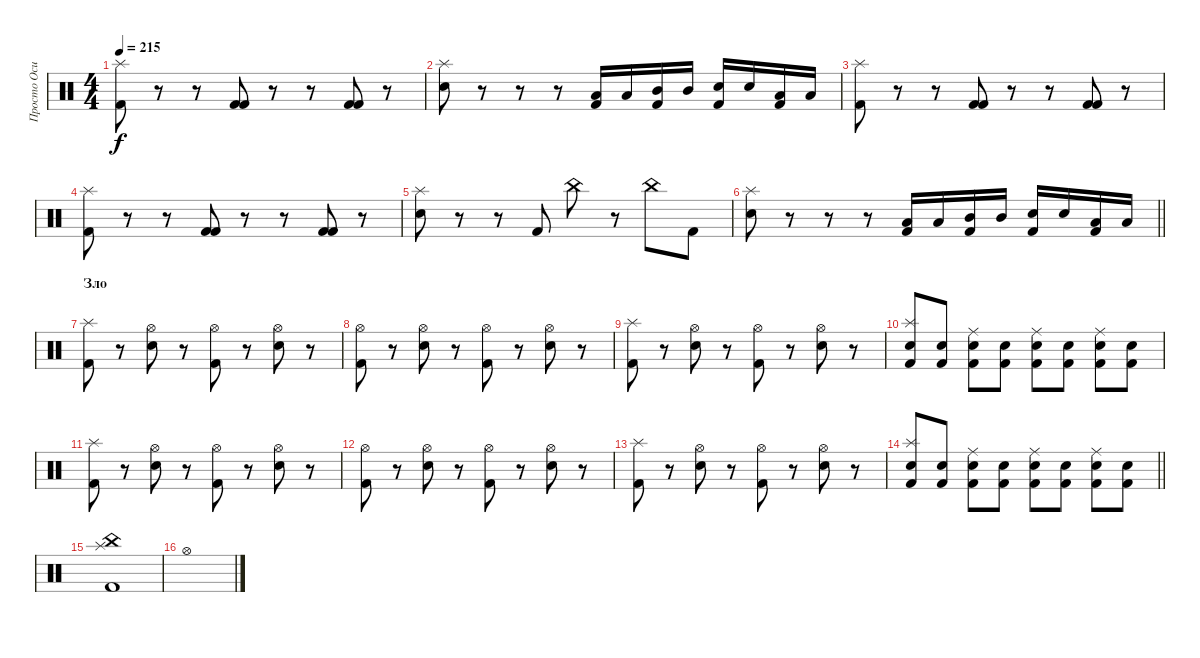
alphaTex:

\track ("Просто Осип" "Просто Оси") {instrument percussion}
\staff {score}
\articulation defaults
\ts (4 4)
\tempo 215
\clef neutral
\ks c
("Kick (hit) 2" "Splash (hit)").8{dy f} r.8 r.8 ("Kick (hit) 2" "Kick (hit) 2").8 r.8 r.8 ("Kick (hit) 2" "Kick (hit) 2").8 r.8 |
("Splash (hit)" "Electric Snare (hit)").8 r.8 r.8 r.8 ("Kick (hit) 2" "Low Tom (hit)").16 "Low Tom (hit)".16 ("Kick (hit) 2" "Mid Tom (hit)").16 "Mid Tom (hit)".16 ("Kick (hit) 2" "Electric Snare (hit)").16 "Electric Snare (hit)".16 ("Kick (hit) 2" "Low Tom (hit)").16 "Low Tom (hit)".16 |
("Kick (hit) 2" "Splash (hit)").8 r.8 r.8 ("Kick (hit) 2" "Kick (hit) 2").8 r.8 r.8 ("Kick (hit) 2" "Kick (hit) 2").8 r.8 |
("Kick (hit) 2" "Splash (hit)").8 r.8 r.8 ("Kick (hit) 2" "Kick (hit) 2").8 r.8 r.8 ("Kick (hit) 2" "Kick (hit) 2").8 r.8 |
("Splash (hit)" "Electric Snare (hit)").8 r.8 r.8 "Kick (hit) 2".8 "China (hit)".8 r.8 "China (hit)".8 "Kick (hit) 2".8 |
\barLineRight lightlight
("Splash (hit)" "Electric Snare (hit)").8 r.8 r.8 r.8 ("Kick (hit) 2" "Low Tom (hit)").16 "Low Tom (hit)".16 ("Kick (hit) 2" "Mid Tom (hit)").16 "Mid Tom (hit)".16 ("Kick (hit) 2" "Electric Snare (hit)").16 "Electric Snare (hit)".16 ("Kick (hit) 2" "Low Tom (hit)").16 "Low Tom (hit)".16 |
\section ("" "Зло")
("Kick (hit) 2" "Splash (hit)").8 r.8 ("Electric Snare (hit)" "Hi-Hat (open)").8 r.8 ("Kick (hit) 2" "Hi-Hat (open)").8 r.8 ("Electric Snare (hit)" "Hi-Hat (open)").8 r.8 |
("Kick (hit) 2" "Hi-Hat (open)").8 r.8 ("Electric Snare (hit)" "Hi-Hat (open)").8 r.8 ("Kick (hit) 2" "Hi-Hat (open)").8 r.8 ("Electric Snare (hit)" "Hi-Hat (open)").8 r.8 |
("Kick (hit) 2" "Splash (hit)").8 r.8 ("Electric Snare (hit)" "Hi-Hat (open)").8 r.8 ("Kick (hit) 2" "Hi-Hat (open)").8 r.8 ("Electric Snare (hit)" "Hi-Hat (open)").8 r.8 |
("Kick (hit) 2" "Electric Snare (hit)" "Splash (hit)").8 ("Kick (hit) 2" "Electric Snare (hit)").8 ("Kick (hit) 2" "Electric Snare (hit)" "Ride (middle)").8 ("Kick (hit) 2" "Electric Snare (hit)").8 ("Kick (hit) 2" "Electric Snare (hit)" "Ride (middle)").8 ("Kick (hit) 2" "Electric Snare (hit)").8 ("Kick (hit) 2" "Electric Snare (hit)" "Ride (middle)").8 ("Kick (hit) 2" "Electric Snare (hit)").8 |
("Kick (hit) 2" "Splash (hit)").8 r.8 ("Electric Snare (hit)" "Hi-Hat (open)").8 r.8 ("Kick (hit) 2" "Hi-Hat (open)").8 r.8 ("Electric Snare (hit)" "Hi-Hat (open)").8 r.8 |
("Kick (hit) 2" "Hi-Hat (open)").8 r.8 ("Electric Snare (hit)" "Hi-Hat (open)").8 r.8 ("Kick (hit) 2" "Hi-Hat (open)").8 r.8 ("Electric Snare (hit)" "Hi-Hat (open)").8 r.8 |
("Kick (hit) 2" "Splash (hit)").8 r.8 ("Electric Snare (hit)" "Hi-Hat (open)").8 r.8 ("Kick (hit) 2" "Hi-Hat (open)").8 r.8 ("Electric Snare (hit)" "Hi-Hat (open)").8 r.8 |
\barLineRight lightlight
("Kick (hit) 2" "Electric Snare (hit)" "Splash (hit)").8 ("Kick (hit) 2" "Electric Snare (hit)").8 ("Kick (hit) 2" "Electric Snare (hit)" "Ride (middle)").8 ("Kick (hit) 2" "Electric Snare (hit)").8 ("Kick (hit) 2" "Electric Snare (hit)" "Ride (middle)").8 ("Kick (hit) 2" "Electric Snare (hit)").8 ("Kick (hit) 2" "Electric Snare (hit)" "Ride (middle)").8 ("Kick (hit) 2" "Electric Snare (hit)").8 |
("China (hit)" "Splash (hit)" "Kick (hit) 2").1 |
"Hi-Hat (open)".1
